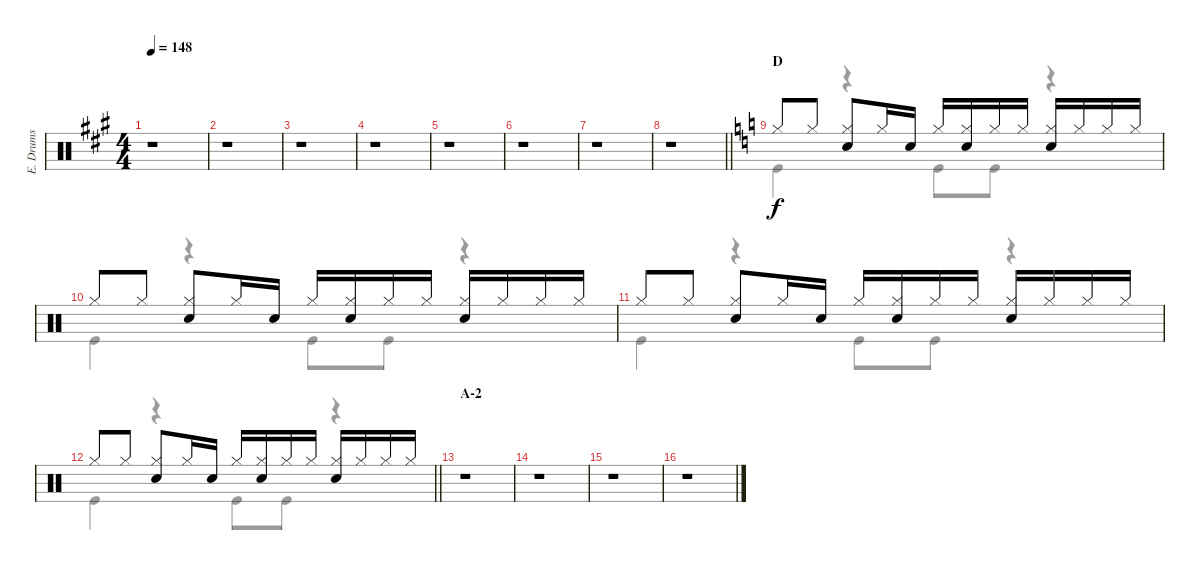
\track ("E. Drums" "E. Drums") {instrument percussion}
\staff {score}
\articulation defaults
\voice
\ts (4 4)
\tempo 148
\clef neutral
\ks a
r.1{dy f} |
r.1 |
r.1 |
r.1 |
r.1 |
r.1 |
r.1 |
\barLineRight lightlight
r.1 |
\section ("" "D")
\ks c "Hi-Hat (closed)".8 "Hi-Hat (closed)".8
("Hi-Hat (closed)" "Electric Snare (hit)").8 "Hi-Hat (closed)".16 "Electric Snare (hit)".16 "Hi-Hat (closed)".16 ("Hi-Hat (closed)" "Electric Snare (hit)").16 "Hi-Hat (closed)".16 "Hi-Hat (closed)".16 ("Hi-Hat (closed)" "Electric Snare (hit)").16 "Hi-Hat (closed)".16 "Hi-Hat (closed)".16 "Hi-Hat (closed)".16 |
"Hi-Hat (closed)".8 "Hi-Hat (closed)".8 ("Hi-Hat (closed)" "Electric Snare (hit)").8 "Hi-Hat (closed)".16 "Electric Snare (hit)".16 "Hi-Hat (closed)".16 ("Hi-Hat (closed)" "Electric Snare (hit)").16 "Hi-Hat (closed)".16 "Hi-Hat (closed)".16 ("Hi-Hat (closed)" "Electric Snare (hit)").16 "Hi-Hat (closed)".16 "Hi-Hat (closed)".16 "Hi-Hat (closed)".16 |
"Hi-Hat (closed)".8 "Hi-Hat (closed)".8 ("Hi-Hat (closed)" "Electric Snare (hit)").8 "Hi-Hat (closed)".16 "Electric Snare (hit)".16 "Hi-Hat (closed)".16 ("Hi-Hat (closed)" "Electric Snare (hit)").16 "Hi-Hat (closed)".16 "Hi-Hat (closed)".16 ("Hi-Hat (closed)" "Electric Snare (hit)").16 "Hi-Hat (closed)".16 "Hi-Hat (closed)".16 "Hi-Hat (closed)".16 |
\barLineRight lightlight "Hi-Hat (closed)".8 "Hi-Hat (closed)".8
("Hi-Hat (closed)" "Electric Snare (hit)").8 "Hi-Hat (closed)".16 "Electric Snare (hit)".16 "Hi-Hat (closed)".16 ("Hi-Hat (closed)" "Electric Snare (hit)").16 "Hi-Hat (closed)".16 "Hi-Hat (closed)".16 ("Hi-Hat (closed)" "Electric Snare (hit)").16 "Hi-Hat (closed)".16 "Hi-Hat (closed)".16 "Hi-Hat (closed)".16 |
\section ("" "A-2")
r.1 |
r.1 |
r.1 |
r.1
\voice
\clef neutral
\ottava regular
\simile none
\ks a
|
|
|
|
|
|
|
\barLineRight lightlight
|
\ks c "Kick (hit)".4
r.4 "Kick (hit)".8 "Kick (hit)".8 r.4 |
"Kick (hit)".4 r.4 "Kick (hit)".8 "Kick (hit)".8 r.4 |
"Kick (hit)".4 r.4 "Kick (hit)".8 "Kick (hit)".8 r.4 |
\barLineRight lightlight "Kick (hit)".4
r.4 "Kick (hit)".8 "Kick (hit)".8 r.4 |
|
|
|
